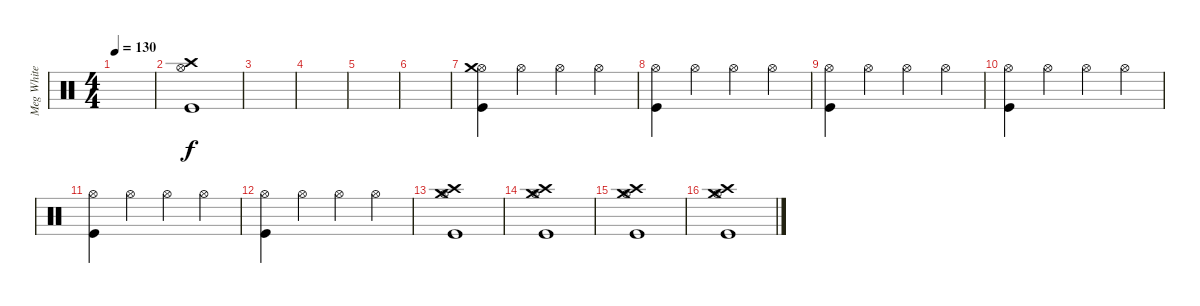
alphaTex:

\track ("Meg White" "Meg White") {instrument percussion}
\staff {score}
\articulation defaults
\ts (4 4)
\tempo 130
\clef neutral
\ks c
|
("Hi-Hat (open)" "Crash high (hit)" "Kick (hit)").1 |
|
|
|
|
("Hi-Hat (open)" "Crash medium (hit)" "Kick (hit)").4 "Hi-Hat (open)".4 "Hi-Hat (open)".4 "Hi-Hat (open)".4 |
("Hi-Hat (open)" "Kick (hit)").4 "Hi-Hat (open)".4 "Hi-Hat (open)".4 "Hi-Hat (open)".4 |
("Hi-Hat (open)" "Kick (hit)").4 "Hi-Hat (open)".4 "Hi-Hat (open)".4 "Hi-Hat (open)".4 |
("Hi-Hat (open)" "Kick (hit)").4 "Hi-Hat (open)".4 "Hi-Hat (open)".4 "Hi-Hat (open)".4 |
("Hi-Hat (open)" "Kick (hit)").4 "Hi-Hat (open)".4 "Hi-Hat (open)".4 "Hi-Hat (open)".4 |
("Hi-Hat (open)" "Kick (hit)").4 "Hi-Hat (open)".4 "Hi-Hat (open)".4 "Hi-Hat (open)".4 |
("Hi-Hat (open)" "Crash medium (hit)" "Crash high (hit)" "Kick (hit)").1 |
("Hi-Hat (open)" "Crash medium (hit)" "Crash high (hit)" "Kick (hit)").1 |
("Hi-Hat (open)" "Crash medium (hit)" "Crash high (hit)" "Kick (hit)").1 |
("Hi-Hat (open)" "Crash medium (hit)" "Crash high (hit)" "Kick (hit)").1
